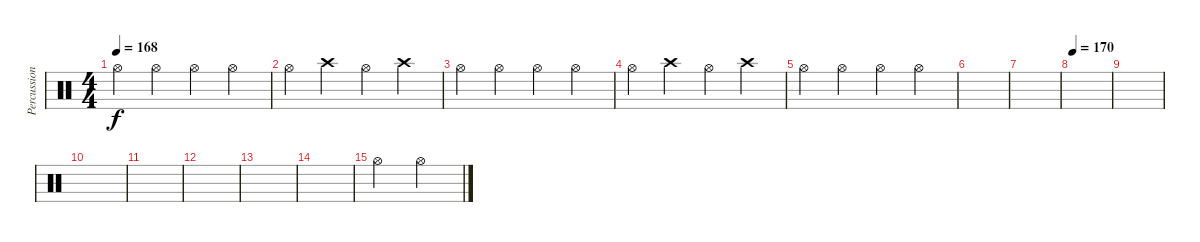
\track ("Percussion" "Percussion") {instrument percussion}
\staff {score}
\articulation defaults
\ts (4 4)
\tempo 168
\clef neutral
\ks c "Hi-Hat (open)".4{dy f} "Hi-Hat (open)".4 "Hi-Hat (open)".4 "Hi-Hat (open)".4
|
"Hi-Hat (open)".4 "Crash high (hit)".4 "Hi-Hat (open)".4 "Crash high (hit)".4 |
"Hi-Hat (open)".4 "Hi-Hat (open)".4 "Hi-Hat (open)".4 "Hi-Hat (open)".4 |
"Hi-Hat (open)".4 "Crash high (hit)".4 "Hi-Hat (open)".4 "Crash high (hit)".4 |
"Hi-Hat (open)".4 "Hi-Hat (open)".4 "Hi-Hat (open)".4 "Hi-Hat (open)".4 |
|
|
\tempo 170
|
|
|
|
|
|
|
"Hi-Hat (open)".2 "Hi-Hat (open)".2
